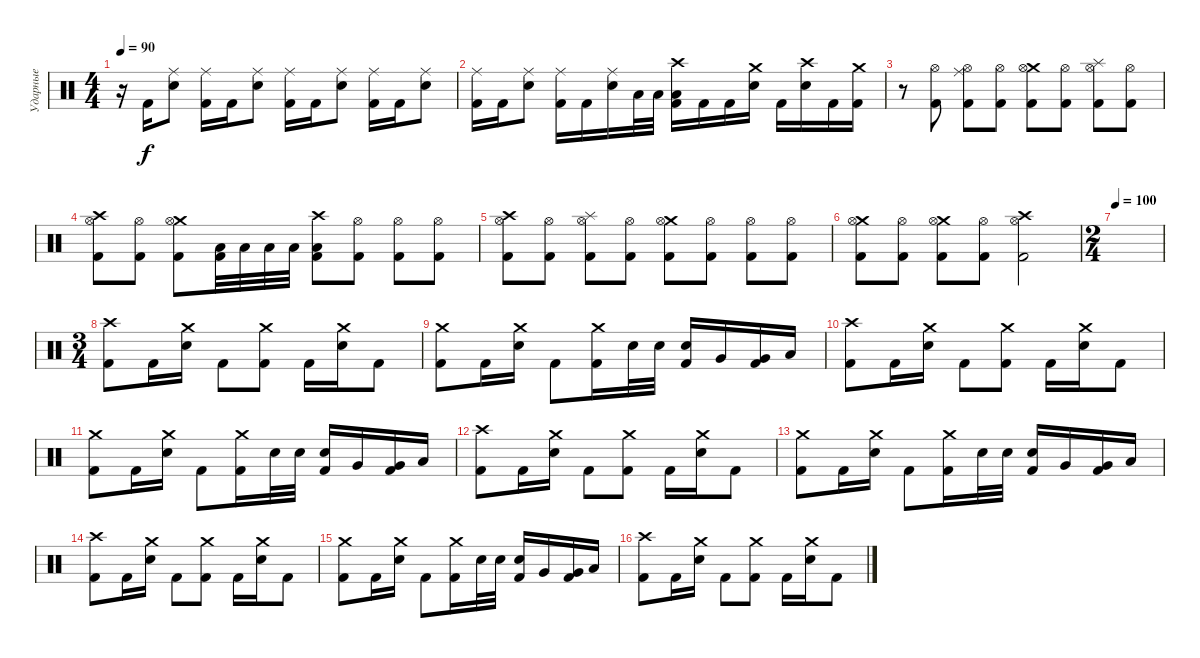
\track ("Ударные" "Ударные") {instrument percussion}
\staff {score}
\articulation defaults
\ts (4 4)
\tempo 90
\clef neutral
\ks c
r.16{dy f} "Kick (hit) 2".16 ("Ride (middle)" "Electric Snare (hit)").8 ("Ride (middle)" "Kick (hit) 2").16 "Kick (hit) 2".16 ("Ride (middle)" "Electric Snare (hit)").8 ("Ride (middle)" "Kick (hit) 2").16 "Kick (hit) 2".16 ("Ride (middle)" "Electric Snare (hit)").8 ("Ride (middle)" "Kick (hit) 2").16 "Kick (hit) 2".16 ("Ride (middle)" "Electric Snare (hit)").8 |
("Ride (middle)" "Kick (hit) 2").16 "Kick (hit) 2".16 ("Ride (middle)" "Electric Snare (hit)").8 ("Ride (middle)" "Kick (hit) 2").16 "Kick (hit) 2".16 ("Ride (middle)" "Electric Snare (hit)").16 "Low Floor Tom (hit)".32 "Low Floor Tom (hit)".32 ("Crash high (hit)" "Low Floor Tom (hit)" "Kick (hit) 2").16 "Kick (hit) 2".16 "Kick (hit) 2".16 ("Crash medium (hit)" "Electric Snare (hit)").16 "Kick (hit) 2".16 ("Crash high (hit)" "Electric Snare (hit)").16 "Kick (hit) 2".16 ("Crash medium (hit)" "Kick (hit) 2").16 |
r.8 ("Hi-Hat (open)" "Kick (hit) 2").8 ("Ride (middle)" "Hi-Hat (open)" "Kick (hit) 2").8 ("Hi-Hat (open)" "Kick (hit) 2").8 ("Crash medium (hit)" "Hi-Hat (open)" "Kick (hit) 2").8 ("Hi-Hat (open)" "Kick (hit) 2").8 ("Splash (hit)" "Hi-Hat (open)" "Kick (hit) 2").8 ("Hi-Hat (open)" "Kick (hit) 2").8 |
("Crash high (hit)" "Hi-Hat (open)" "Kick (hit) 2").8 ("Hi-Hat (open)" "Kick (hit) 2").8 ("Crash medium (hit)" "Hi-Hat (open)" "Kick (hit) 2").8 ("Low Floor Tom (hit)" "Kick (hit) 2").32 "Low Floor Tom (hit)".32 "Low Floor Tom (hit)".32 "Low Floor Tom (hit)".32 ("Crash high (hit)" "Low Floor Tom (hit)" "Kick (hit) 2").8 ("Hi-Hat (open)" "Kick (hit) 2").8 ("Hi-Hat (open)" "Kick (hit) 2").8 ("Hi-Hat (open)" "Kick (hit) 2").8 |
("Crash high (hit)" "Hi-Hat (open)" "Kick (hit) 2").8 ("Hi-Hat (open)" "Kick (hit) 2").8 ("Splash (hit)" "Hi-Hat (open)" "Kick (hit) 2").8 ("Hi-Hat (open)" "Kick (hit) 2").8 ("Crash medium (hit)" "Hi-Hat (open)" "Kick (hit) 2").8 ("Hi-Hat (open)" "Kick (hit) 2").8 ("Hi-Hat (open)" "Kick (hit) 2").8 ("Hi-Hat (open)" "Kick (hit) 2").8 |
("Crash medium (hit)" "Hi-Hat (open)" "Kick (hit) 2").8 ("Hi-Hat (open)" "Kick (hit) 2").8 ("Crash medium (hit)" "Hi-Hat (open)" "Kick (hit) 2").8 ("Hi-Hat (open)" "Kick (hit) 2").8 ("Crash high (hit)" "Hi-Hat (open)" "Kick (hit) 2").2 |
\ts (2 4)
\tempo 100
|
\ts (3 4)
("Crash high (hit)" "Kick (hit) 2").8 "Kick (hit) 2".16 ("Crash medium (hit)" "Electric Snare (hit)").16 "Kick (hit) 2".8 ("Crash medium (hit)" "Kick (hit) 2").8 "Kick (hit) 2".16 ("Crash medium (hit)" "Electric Snare (hit)").16 "Kick (hit) 2".8 |
("Crash medium (hit)" "Kick (hit) 2").8 "Kick (hit) 2".16 ("Crash medium (hit)" "Electric Snare (hit)").16 "Kick (hit) 2".8 ("Crash medium (hit)" "Kick (hit) 2").16 "Electric Snare (hit)".32 "Electric Snare (hit)".32 ("Electric Snare (hit)" "Kick (hit) 2").16 "Very Low Tom (hit)".16 ("Very Low Tom (hit)" "Kick (hit) 2").16 "Low Floor Tom (hit)".16 |
("Crash high (hit)" "Kick (hit) 2").8 "Kick (hit) 2".16 ("Crash medium (hit)" "Electric Snare (hit)").16 "Kick (hit) 2".8 ("Crash medium (hit)" "Kick (hit) 2").8 "Kick (hit) 2".16 ("Crash medium (hit)" "Electric Snare (hit)").16 "Kick (hit) 2".8 |
("Crash medium (hit)" "Kick (hit) 2").8 "Kick (hit) 2".16 ("Crash medium (hit)" "Electric Snare (hit)").16 "Kick (hit) 2".8 ("Crash medium (hit)" "Kick (hit) 2").16 "Electric Snare (hit)".32 "Electric Snare (hit)".32 ("Electric Snare (hit)" "Kick (hit) 2").16 "Very Low Tom (hit)".16 ("Very Low Tom (hit)" "Kick (hit) 2").16 "Low Floor Tom (hit)".16 |
("Crash high (hit)" "Kick (hit) 2").8 "Kick (hit) 2".16 ("Crash medium (hit)" "Electric Snare (hit)").16 "Kick (hit) 2".8 ("Crash medium (hit)" "Kick (hit) 2").8 "Kick (hit) 2".16 ("Crash medium (hit)" "Electric Snare (hit)").16 "Kick (hit) 2".8 |
("Crash medium (hit)" "Kick (hit) 2").8 "Kick (hit) 2".16 ("Crash medium (hit)" "Electric Snare (hit)").16 "Kick (hit) 2".8 ("Crash medium (hit)" "Kick (hit) 2").16 "Electric Snare (hit)".32 "Electric Snare (hit)".32 ("Electric Snare (hit)" "Kick (hit) 2").16 "Very Low Tom (hit)".16 ("Very Low Tom (hit)" "Kick (hit) 2").16 "Low Floor Tom (hit)".16 |
("Crash high (hit)" "Kick (hit) 2").8 "Kick (hit) 2".16 ("Crash medium (hit)" "Electric Snare (hit)").16 "Kick (hit) 2".8 ("Crash medium (hit)" "Kick (hit) 2").8 "Kick (hit) 2".16 ("Crash medium (hit)" "Electric Snare (hit)").16 "Kick (hit) 2".8 |
("Crash medium (hit)" "Kick (hit) 2").8 "Kick (hit) 2".16 ("Crash medium (hit)" "Electric Snare (hit)").16 "Kick (hit) 2".8 ("Crash medium (hit)" "Kick (hit) 2").16 "Electric Snare (hit)".32 "Electric Snare (hit)".32 ("Electric Snare (hit)" "Kick (hit) 2").16 "Very Low Tom (hit)".16 ("Very Low Tom (hit)" "Kick (hit) 2").16 "Low Floor Tom (hit)".16 |
("Crash high (hit)" "Kick (hit) 2").8 "Kick (hit) 2".16 ("Crash medium (hit)" "Electric Snare (hit)").16 "Kick (hit) 2".8 ("Crash medium (hit)" "Kick (hit) 2").8 "Kick (hit) 2".16 ("Crash medium (hit)" "Electric Snare (hit)").16 "Kick (hit) 2".8
